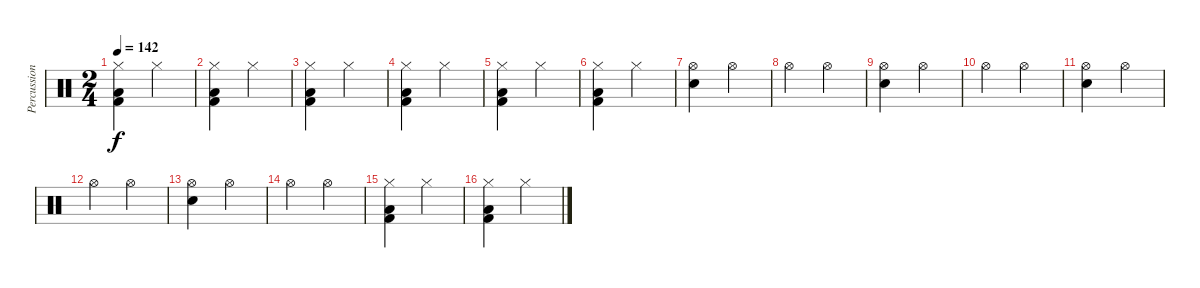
\track ("Percussions" "Percussion") {instrument percussion}
\staff {score}
\articulation defaults
\ts (2 4)
\tempo 142
\clef neutral
\ks c
("Hi-Hat (closed)" "Low Tom (hit)" "Kick (hit) 2").4{dy f} "Hi-Hat (closed)".4 |
("Hi-Hat (closed)" "Low Tom (hit)" "Kick (hit) 2").4 "Hi-Hat (closed)".4 |
("Hi-Hat (closed)" "Low Tom (hit)" "Kick (hit) 2").4 "Hi-Hat (closed)".4 |
("Hi-Hat (closed)" "Low Tom (hit)" "Kick (hit) 2").4 "Hi-Hat (closed)".4 |
("Hi-Hat (closed)" "Low Tom (hit)" "Kick (hit) 2").4 "Hi-Hat (closed)".4 |
("Hi-Hat (closed)" "Low Tom (hit)" "Kick (hit) 2").4 "Hi-Hat (closed)".4 |
("Hi-Hat (open)" "Snare (hit) 2").4 "Hi-Hat (open)".4 |
"Hi-Hat (open)".4 "Hi-Hat (open)".4 |
("Hi-Hat (open)" "Snare (hit) 2").4 "Hi-Hat (open)".4 |
"Hi-Hat (open)".4 "Hi-Hat (open)".4 |
("Hi-Hat (open)" "Snare (hit) 2").4 "Hi-Hat (open)".4 |
"Hi-Hat (open)".4 "Hi-Hat (open)".4 |
("Hi-Hat (open)" "Snare (hit) 2").4 "Hi-Hat (open)".4 |
"Hi-Hat (open)".4 "Hi-Hat (open)".4 |
("Hi-Hat (closed)" "Low Tom (hit)" "Kick (hit) 2").4 "Hi-Hat (closed)".4 |
("Hi-Hat (closed)" "Low Tom (hit)" "Kick (hit) 2").4 "Hi-Hat (closed)".4
